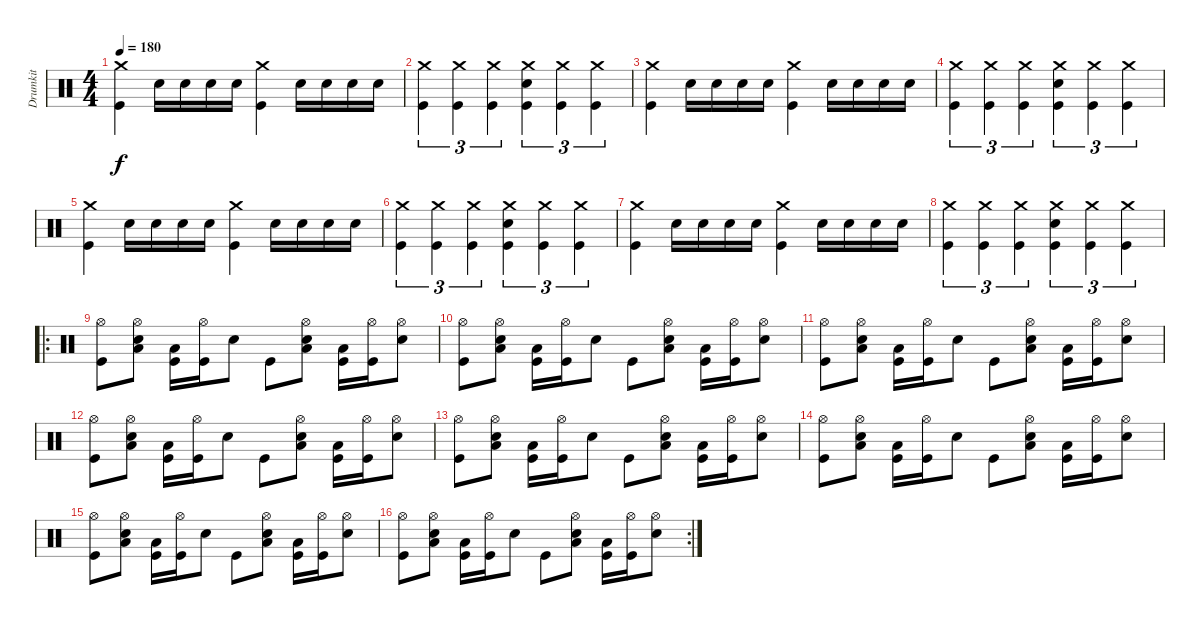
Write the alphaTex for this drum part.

\track ("Drumkit" "Drumkit") {instrument percussion}
\staff {score}
\articulation defaults
\ts (4 4)
\tempo 180
\clef neutral
\ks c
("Crash medium (hit)" "Kick (hit)").4{dy f} "Snare (hit) 2".16 "Snare (hit) 2".16 "Snare (hit) 2".16 "Snare (hit) 2".16 ("Crash medium (hit)" "Kick (hit)").4 "Snare (hit) 2".16 "Snare (hit) 2".16 "Snare (hit) 2".16 "Snare (hit) 2".16 |
("Crash medium (hit)" "Kick (hit)").4{tu (3 2)} ("Crash medium (hit)" "Kick (hit)").4{tu (3 2)} ("Crash medium (hit)" "Kick (hit)").4{tu (3 2)} ("Crash medium (hit)" "Snare (hit) 2" "Kick (hit)").4{tu (3 2)} ("Crash medium (hit)" "Kick (hit)").4{tu (3 2)} ("Crash medium (hit)" "Kick (hit)").4{tu (3 2)} |
("Crash medium (hit)" "Kick (hit)").4 "Snare (hit) 2".16 "Snare (hit) 2".16 "Snare (hit) 2".16 "Snare (hit) 2".16 ("Crash medium (hit)" "Kick (hit)").4 "Snare (hit) 2".16 "Snare (hit) 2".16 "Snare (hit) 2".16 "Snare (hit) 2".16 |
("Crash medium (hit)" "Kick (hit)").4{tu (3 2)} ("Crash medium (hit)" "Kick (hit)").4{tu (3 2)} ("Crash medium (hit)" "Kick (hit)").4{tu (3 2)} ("Crash medium (hit)" "Snare (hit) 2" "Kick (hit)").4{tu (3 2)} ("Crash medium (hit)" "Kick (hit)").4{tu (3 2)} ("Crash medium (hit)" "Kick (hit)").4{tu (3 2)} |
("Crash medium (hit)" "Kick (hit)").4 "Snare (hit) 2".16 "Snare (hit) 2".16 "Snare (hit) 2".16 "Snare (hit) 2".16 ("Crash medium (hit)" "Kick (hit)").4 "Snare (hit) 2".16 "Snare (hit) 2".16 "Snare (hit) 2".16 "Snare (hit) 2".16 |
("Crash medium (hit)" "Kick (hit)").4{tu (3 2)} ("Crash medium (hit)" "Kick (hit)").4{tu (3 2)} ("Crash medium (hit)" "Kick (hit)").4{tu (3 2)} ("Crash medium (hit)" "Snare (hit) 2" "Kick (hit)").4{tu (3 2)} ("Crash medium (hit)" "Kick (hit)").4{tu (3 2)} ("Crash medium (hit)" "Kick (hit)").4{tu (3 2)} |
("Crash medium (hit)" "Kick (hit)").4 "Snare (hit) 2".16 "Snare (hit) 2".16 "Snare (hit) 2".16 "Snare (hit) 2".16 ("Crash medium (hit)" "Kick (hit)").4 "Snare (hit) 2".16 "Snare (hit) 2".16 "Snare (hit) 2".16 "Snare (hit) 2".16 |
("Crash medium (hit)" "Kick (hit)").4{tu (3 2)} ("Crash medium (hit)" "Kick (hit)").4{tu (3 2)} ("Crash medium (hit)" "Kick (hit)").4{tu (3 2)} ("Crash medium (hit)" "Snare (hit) 2" "Kick (hit)").4{tu (3 2)} ("Crash medium (hit)" "Kick (hit)").4{tu (3 2)} ("Crash medium (hit)" "Kick (hit)").4{tu (3 2)} |
\ro
("Hi-Hat (open)" "Kick (hit)").8 ("Hi-Hat (open)" "Electric Snare (hit)" "Low Floor Tom (hit)").8 ("Low Floor Tom (hit)" "Kick (hit)").16 ("Hi-Hat (open)" "Kick (hit)").16 "Electric Snare (hit)".8 "Kick (hit)".8 ("Hi-Hat (open)" "Electric Snare (hit)" "Low Floor Tom (hit)").8 ("Low Floor Tom (hit)" "Kick (hit)").16 ("Hi-Hat (open)" "Kick (hit)").16 ("Hi-Hat (open)" "Electric Snare (hit)").8 |
("Hi-Hat (open)" "Kick (hit)").8 ("Hi-Hat (open)" "Electric Snare (hit)" "Low Floor Tom (hit)").8 ("Low Floor Tom (hit)" "Kick (hit)").16 ("Hi-Hat (open)" "Kick (hit)").16 "Electric Snare (hit)".8 "Kick (hit)".8 ("Hi-Hat (open)" "Electric Snare (hit)" "Low Floor Tom (hit)").8 ("Low Floor Tom (hit)" "Kick (hit)").16 ("Hi-Hat (open)" "Kick (hit)").16 ("Hi-Hat (open)" "Electric Snare (hit)").8 |
("Hi-Hat (open)" "Kick (hit)").8 ("Hi-Hat (open)" "Electric Snare (hit)" "Low Floor Tom (hit)").8 ("Low Floor Tom (hit)" "Kick (hit)").16 ("Hi-Hat (open)" "Kick (hit)").16 "Electric Snare (hit)".8 "Kick (hit)".8 ("Hi-Hat (open)" "Electric Snare (hit)" "Low Floor Tom (hit)").8 ("Low Floor Tom (hit)" "Kick (hit)").16 ("Hi-Hat (open)" "Kick (hit)").16 ("Hi-Hat (open)" "Electric Snare (hit)").8 |
("Hi-Hat (open)" "Kick (hit)").8 ("Hi-Hat (open)" "Electric Snare (hit)" "Low Floor Tom (hit)").8 ("Low Floor Tom (hit)" "Kick (hit)").16 ("Hi-Hat (open)" "Kick (hit)").16 "Electric Snare (hit)".8 "Kick (hit)".8 ("Hi-Hat (open)" "Electric Snare (hit)" "Low Floor Tom (hit)").8 ("Low Floor Tom (hit)" "Kick (hit)").16 ("Hi-Hat (open)" "Kick (hit)").16 ("Hi-Hat (open)" "Electric Snare (hit)").8 |
("Hi-Hat (open)" "Kick (hit)").8 ("Hi-Hat (open)" "Electric Snare (hit)" "Low Floor Tom (hit)").8 ("Low Floor Tom (hit)" "Kick (hit)").16 ("Hi-Hat (open)" "Kick (hit)").16 "Electric Snare (hit)".8 "Kick (hit)".8 ("Hi-Hat (open)" "Electric Snare (hit)" "Low Floor Tom (hit)").8 ("Low Floor Tom (hit)" "Kick (hit)").16 ("Hi-Hat (open)" "Kick (hit)").16 ("Hi-Hat (open)" "Electric Snare (hit)").8 |
("Hi-Hat (open)" "Kick (hit)").8 ("Hi-Hat (open)" "Electric Snare (hit)" "Low Floor Tom (hit)").8 ("Low Floor Tom (hit)" "Kick (hit)").16 ("Hi-Hat (open)" "Kick (hit)").16 "Electric Snare (hit)".8 "Kick (hit)".8 ("Hi-Hat (open)" "Electric Snare (hit)" "Low Floor Tom (hit)").8 ("Low Floor Tom (hit)" "Kick (hit)").16 ("Hi-Hat (open)" "Kick (hit)").16 ("Hi-Hat (open)" "Electric Snare (hit)").8 |
("Hi-Hat (open)" "Kick (hit)").8 ("Hi-Hat (open)" "Electric Snare (hit)" "Low Floor Tom (hit)").8 ("Low Floor Tom (hit)" "Kick (hit)").16 ("Hi-Hat (open)" "Kick (hit)").16 "Electric Snare (hit)".8 "Kick (hit)".8 ("Hi-Hat (open)" "Electric Snare (hit)" "Low Floor Tom (hit)").8 ("Low Floor Tom (hit)" "Kick (hit)").16 ("Hi-Hat (open)" "Kick (hit)").16 ("Hi-Hat (open)" "Electric Snare (hit)").8 |
\rc 2
("Hi-Hat (open)" "Kick (hit)").8 ("Hi-Hat (open)" "Electric Snare (hit)" "Low Floor Tom (hit)").8 ("Low Floor Tom (hit)" "Kick (hit)").16 ("Hi-Hat (open)" "Kick (hit)").16 "Electric Snare (hit)".8 "Kick (hit)".8 ("Hi-Hat (open)" "Electric Snare (hit)" "Low Floor Tom (hit)").8 ("Low Floor Tom (hit)" "Kick (hit)").16 ("Hi-Hat (open)" "Kick (hit)").16 ("Hi-Hat (open)" "Electric Snare (hit)").8
